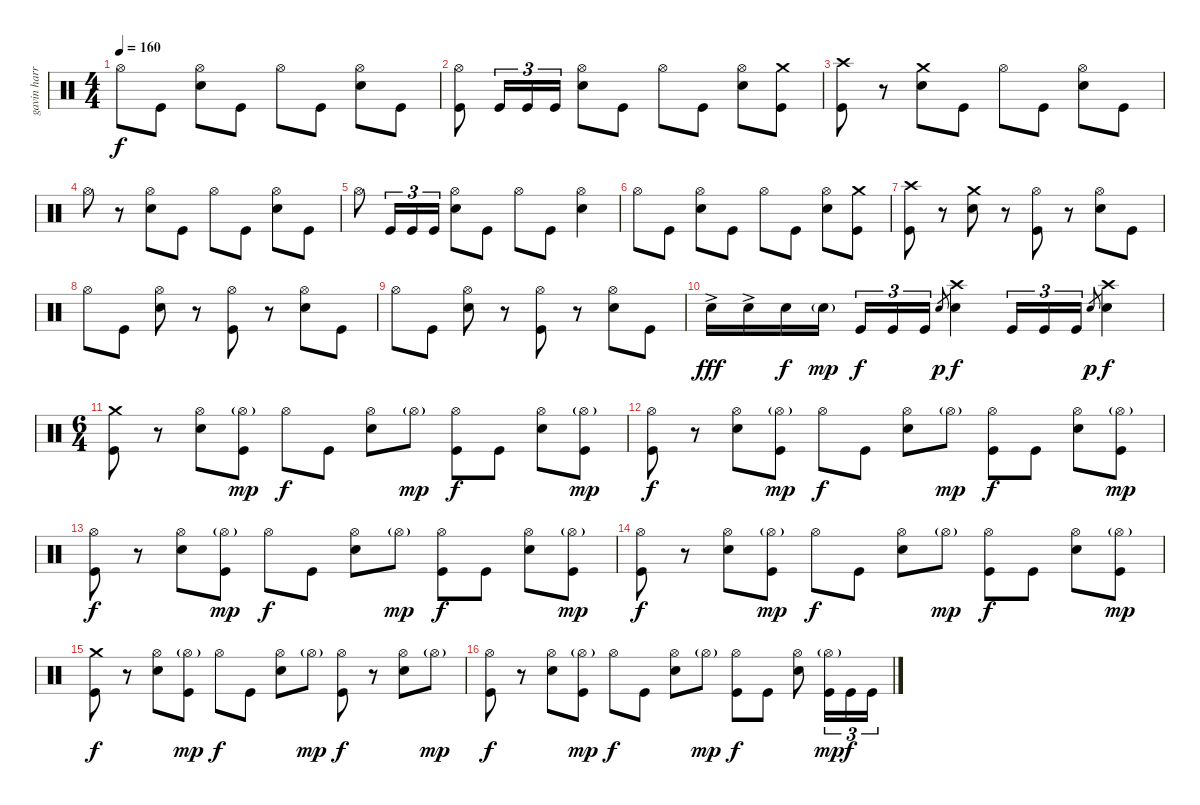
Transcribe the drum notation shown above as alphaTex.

\track ("gavin harrison ( drum ) " "gavin harr") {instrument percussion}
\staff {score}
\articulation defaults
\ts (4 4)
\tempo 160
\clef neutral
\ks c "Hi-Hat (open)".8{dy f} "Kick (hit)".8
("Hi-Hat (open)" "Snare (hit) 2").8 "Kick (hit)".8 "Hi-Hat (open)".8 "Kick (hit)".8 ("Hi-Hat (open)" "Snare (hit) 2").8 "Kick (hit)".8 |
("Hi-Hat (open)" "Kick (hit)").8 "Kick (hit)".16{tu (3 2)} "Kick (hit)".16{tu (3 2)} "Kick (hit)".16{tu (3 2)} ("Hi-Hat (open)" "Snare (hit) 2").8 "Kick (hit)".8 "Hi-Hat (open)".8 "Kick (hit)".8 ("Hi-Hat (open)" "Snare (hit) 2").8 ("Crash medium (hit)" "Kick (hit)").8 |
("Crash high (hit)" "Kick (hit)").8 r.8 ("Crash medium (hit)" "Snare (hit) 2").8 "Kick (hit)".8 "Hi-Hat (open)".8 "Kick (hit)".8 ("Hi-Hat (open)" "Snare (hit) 2").8 "Kick (hit)".8 |
"Hi-Hat (open)".8 r.8 ("Hi-Hat (open)" "Snare (hit) 2").8 "Kick (hit)".8 "Hi-Hat (open)".8 "Kick (hit)".8 ("Hi-Hat (open)" "Snare (hit) 2").8 "Kick (hit)".8 |
"Hi-Hat (open)".8 "Kick (hit)".16{tu (3 2)} "Kick (hit)".16{tu (3 2)} "Kick (hit)".16{tu (3 2)} ("Hi-Hat (open)" "Snare (hit) 2").8 "Kick (hit)".8 "Hi-Hat (open)".8 "Kick (hit)".8 ("Hi-Hat (open)" "Snare (hit) 2").4 |
"Hi-Hat (open)".8 "Kick (hit)".8 ("Hi-Hat (open)" "Snare (hit) 2").8 "Kick (hit)".8 "Hi-Hat (open)".8 "Kick (hit)".8 ("Hi-Hat (open)" "Snare (hit) 2").8 ("Crash medium (hit)" "Kick (hit)").8 |
("Crash high (hit)" "Kick (hit)").8 r.8 ("Crash medium (hit)" "Snare (hit) 2").8 r.8 ("Hi-Hat (open)" "Kick (hit)").8 r.8 ("Hi-Hat (open)" "Snare (hit) 2").8 "Kick (hit)".8 |
"Hi-Hat (open)".8 "Kick (hit)".8 ("Hi-Hat (open)" "Snare (hit) 2").8 r.8 ("Hi-Hat (open)" "Kick (hit)").8 r.8 ("Hi-Hat (open)" "Snare (hit) 2").8 "Kick (hit)".8 |
"Hi-Hat (open)".8 "Kick (hit)".8 ("Hi-Hat (open)" "Snare (hit) 2").8 r.8 ("Hi-Hat (open)" "Kick (hit)").8 r.8 ("Hi-Hat (open)" "Snare (hit) 2").8 "Kick (hit)".8 |
"Snare (hit) 2"{ac}.16{dy fff} "Snare (hit) 2"{ac}.16 "Snare (hit) 2".16{dy f} "Snare (hit) 2"{g}.16{dy mp} "Kick (hit)".16{tu (3 2) dy f} "Kick (hit)".16{tu (3 2)} "Kick (hit)".16{tu (3 2)} "Snare (hit) 2".8{gr dy p} ("Crash high (hit)" "Snare (hit) 2").4{dy f} "Kick (hit)".16{tu (3 2)} "Kick (hit)".16{tu (3 2)} "Kick (hit)".16{tu (3 2)} "Snare (hit) 2".8{gr dy p} ("Crash high (hit)" "Snare (hit) 2").4{dy f} |
\ts (6 4)
("Crash medium (hit)" "Kick (hit)").8 r.8 ("Hi-Hat (open)" "Snare (hit) 2").8 ("Hi-Hat (open)"{g} "Kick (hit)").8{dy mp} "Hi-Hat (open)".8{dy f} "Kick (hit)".8 ("Hi-Hat (open)" "Snare (hit) 2").8 "Hi-Hat (open)"{g}.8{dy mp} ("Hi-Hat (open)" "Kick (hit)").8{dy f} "Kick (hit)".8 ("Hi-Hat (open)" "Snare (hit) 2").8 ("Hi-Hat (open)"{g} "Kick (hit)").8{dy mp} |
("Hi-Hat (open)" "Kick (hit)").8{dy f} r.8 ("Hi-Hat (open)" "Snare (hit) 2").8 ("Hi-Hat (open)"{g} "Kick (hit)").8{dy mp} "Hi-Hat (open)".8{dy f} "Kick (hit)".8 ("Hi-Hat (open)" "Snare (hit) 2").8 "Hi-Hat (open)"{g}.8{dy mp} ("Hi-Hat (open)" "Kick (hit)").8{dy f} "Kick (hit)".8 ("Hi-Hat (open)" "Snare (hit) 2").8 ("Hi-Hat (open)"{g} "Kick (hit)").8{dy mp} |
("Hi-Hat (open)" "Kick (hit)").8{dy f} r.8 ("Hi-Hat (open)" "Snare (hit) 2").8 ("Hi-Hat (open)"{g} "Kick (hit)").8{dy mp} "Hi-Hat (open)".8{dy f} "Kick (hit)".8 ("Hi-Hat (open)" "Snare (hit) 2").8 "Hi-Hat (open)"{g}.8{dy mp} ("Hi-Hat (open)" "Kick (hit)").8{dy f} "Kick (hit)".8 ("Hi-Hat (open)" "Snare (hit) 2").8 ("Hi-Hat (open)"{g} "Kick (hit)").8{dy mp} |
("Hi-Hat (open)" "Kick (hit)").8{dy f} r.8 ("Hi-Hat (open)" "Snare (hit) 2").8 ("Hi-Hat (open)"{g} "Kick (hit)").8{dy mp} "Hi-Hat (open)".8{dy f} "Kick (hit)".8 ("Hi-Hat (open)" "Snare (hit) 2").8 "Hi-Hat (open)"{g}.8{dy mp} ("Hi-Hat (open)" "Kick (hit)").8{dy f} "Kick (hit)".8 ("Hi-Hat (open)" "Snare (hit) 2").8 ("Hi-Hat (open)"{g} "Kick (hit)").8{dy mp} |
("Crash medium (hit)" "Kick (hit)").8{dy f} r.8 ("Hi-Hat (open)" "Snare (hit) 2").8 ("Hi-Hat (open)"{g} "Kick (hit)").8{dy mp} "Hi-Hat (open)".8{dy f} "Kick (hit)".8 ("Hi-Hat (open)" "Snare (hit) 2").8 "Hi-Hat (open)"{g}.8{dy mp} ("Hi-Hat (open)" "Kick (hit)").8{dy f} r.8 ("Hi-Hat (open)" "Snare (hit) 2").8 "Hi-Hat (open)"{g}.8{dy mp} |
("Hi-Hat (open)" "Kick (hit)").8{dy f} r.8 ("Hi-Hat (open)" "Snare (hit) 2").8 ("Hi-Hat (open)"{g} "Kick (hit)").8{dy mp} "Hi-Hat (open)".8{dy f} "Kick (hit)".8 ("Hi-Hat (open)" "Snare (hit) 2").8 "Hi-Hat (open)"{g}.8{dy mp} ("Hi-Hat (open)" "Kick (hit)").8{dy f} "Kick (hit)".8 ("Hi-Hat (open)" "Snare (hit) 2").8 ("Hi-Hat (open)"{g} "Kick (hit)").16{tu (3 2) dy mp} "Kick (hit)".16{tu (3 2) dy f} "Kick (hit)".16{tu (3 2)}
